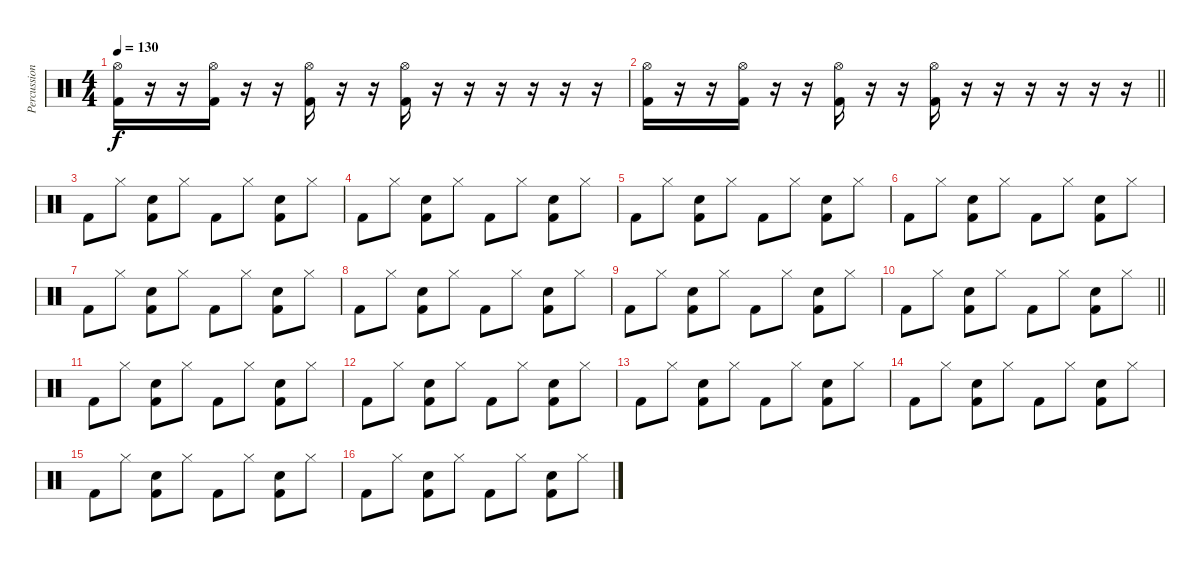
\track ("Percussion" "Percussion") {instrument percussion}
\staff {score}
\articulation defaults
\ts (4 4)
\tempo 130
\clef neutral
\ks c
("Hi-Hat (open)" "Kick (hit) 2").16{dy f} r.16 r.16 ("Hi-Hat (open)" "Kick (hit) 2").16 r.16 r.16 ("Hi-Hat (open)" "Kick (hit) 2").16 r.16 r.16 ("Hi-Hat (open)" "Kick (hit) 2").16 r.16 r.16 r.16 r.16 r.16 r.16 |
\barLineRight lightlight
("Hi-Hat (open)" "Kick (hit) 2").16 r.16 r.16 ("Hi-Hat (open)" "Kick (hit) 2").16 r.16 r.16 ("Hi-Hat (open)" "Kick (hit) 2").16 r.16 r.16 ("Hi-Hat (open)" "Kick (hit) 2").16 r.16 r.16 r.16 r.16 r.16 r.16 |
"Kick (hit) 2".8 "Hi-Hat (closed)".8 ("Electric Snare (hit)" "Kick (hit) 2").8 "Hi-Hat (closed)".8 "Kick (hit) 2".8 "Hi-Hat (closed)".8 ("Electric Snare (hit)" "Kick (hit) 2").8 "Hi-Hat (closed)".8 |
"Kick (hit) 2".8 "Hi-Hat (closed)".8 ("Electric Snare (hit)" "Kick (hit) 2").8 "Hi-Hat (closed)".8 "Kick (hit) 2".8 "Hi-Hat (closed)".8 ("Electric Snare (hit)" "Kick (hit) 2").8 "Hi-Hat (closed)".8 |
"Kick (hit) 2".8 "Hi-Hat (closed)".8 ("Electric Snare (hit)" "Kick (hit) 2").8 "Hi-Hat (closed)".8 "Kick (hit) 2".8 "Hi-Hat (closed)".8 ("Electric Snare (hit)" "Kick (hit) 2").8 "Hi-Hat (closed)".8 |
"Kick (hit) 2".8 "Hi-Hat (closed)".8 ("Electric Snare (hit)" "Kick (hit) 2").8 "Hi-Hat (closed)".8 "Kick (hit) 2".8 "Hi-Hat (closed)".8 ("Electric Snare (hit)" "Kick (hit) 2").8 "Hi-Hat (closed)".8 |
"Kick (hit) 2".8 "Hi-Hat (closed)".8 ("Electric Snare (hit)" "Kick (hit) 2").8 "Hi-Hat (closed)".8 "Kick (hit) 2".8 "Hi-Hat (closed)".8 ("Electric Snare (hit)" "Kick (hit) 2").8 "Hi-Hat (closed)".8 |
"Kick (hit) 2".8 "Hi-Hat (closed)".8 ("Electric Snare (hit)" "Kick (hit) 2").8 "Hi-Hat (closed)".8 "Kick (hit) 2".8 "Hi-Hat (closed)".8 ("Electric Snare (hit)" "Kick (hit) 2").8 "Hi-Hat (closed)".8 |
"Kick (hit) 2".8 "Hi-Hat (closed)".8 ("Electric Snare (hit)" "Kick (hit) 2").8 "Hi-Hat (closed)".8 "Kick (hit) 2".8 "Hi-Hat (closed)".8 ("Electric Snare (hit)" "Kick (hit) 2").8 "Hi-Hat (closed)".8 |
\barLineRight lightlight "Kick (hit) 2".8 "Hi-Hat (closed)".8
("Electric Snare (hit)" "Kick (hit) 2").8 "Hi-Hat (closed)".8 "Kick (hit) 2".8 "Hi-Hat (closed)".8 ("Electric Snare (hit)" "Kick (hit) 2").8 "Hi-Hat (closed)".8 |
"Kick (hit) 2".8 "Hi-Hat (closed)".8 ("Electric Snare (hit)" "Kick (hit) 2").8 "Hi-Hat (closed)".8 "Kick (hit) 2".8 "Hi-Hat (closed)".8 ("Electric Snare (hit)" "Kick (hit) 2").8 "Hi-Hat (closed)".8 |
"Kick (hit) 2".8 "Hi-Hat (closed)".8 ("Electric Snare (hit)" "Kick (hit) 2").8 "Hi-Hat (closed)".8 "Kick (hit) 2".8 "Hi-Hat (closed)".8 ("Electric Snare (hit)" "Kick (hit) 2").8 "Hi-Hat (closed)".8 |
"Kick (hit) 2".8 "Hi-Hat (closed)".8 ("Electric Snare (hit)" "Kick (hit) 2").8 "Hi-Hat (closed)".8 "Kick (hit) 2".8 "Hi-Hat (closed)".8 ("Electric Snare (hit)" "Kick (hit) 2").8 "Hi-Hat (closed)".8 |
"Kick (hit) 2".8 "Hi-Hat (closed)".8 ("Electric Snare (hit)" "Kick (hit) 2").8 "Hi-Hat (closed)".8 "Kick (hit) 2".8 "Hi-Hat (closed)".8 ("Electric Snare (hit)" "Kick (hit) 2").8 "Hi-Hat (closed)".8 |
"Kick (hit) 2".8 "Hi-Hat (closed)".8 ("Electric Snare (hit)" "Kick (hit) 2").8 "Hi-Hat (closed)".8 "Kick (hit) 2".8 "Hi-Hat (closed)".8 ("Electric Snare (hit)" "Kick (hit) 2").8 "Hi-Hat (closed)".8 |
"Kick (hit) 2".8 "Hi-Hat (closed)".8 ("Electric Snare (hit)" "Kick (hit) 2").8 "Hi-Hat (closed)".8 "Kick (hit) 2".8 "Hi-Hat (closed)".8 ("Electric Snare (hit)" "Kick (hit) 2").8 "Hi-Hat (closed)".8
